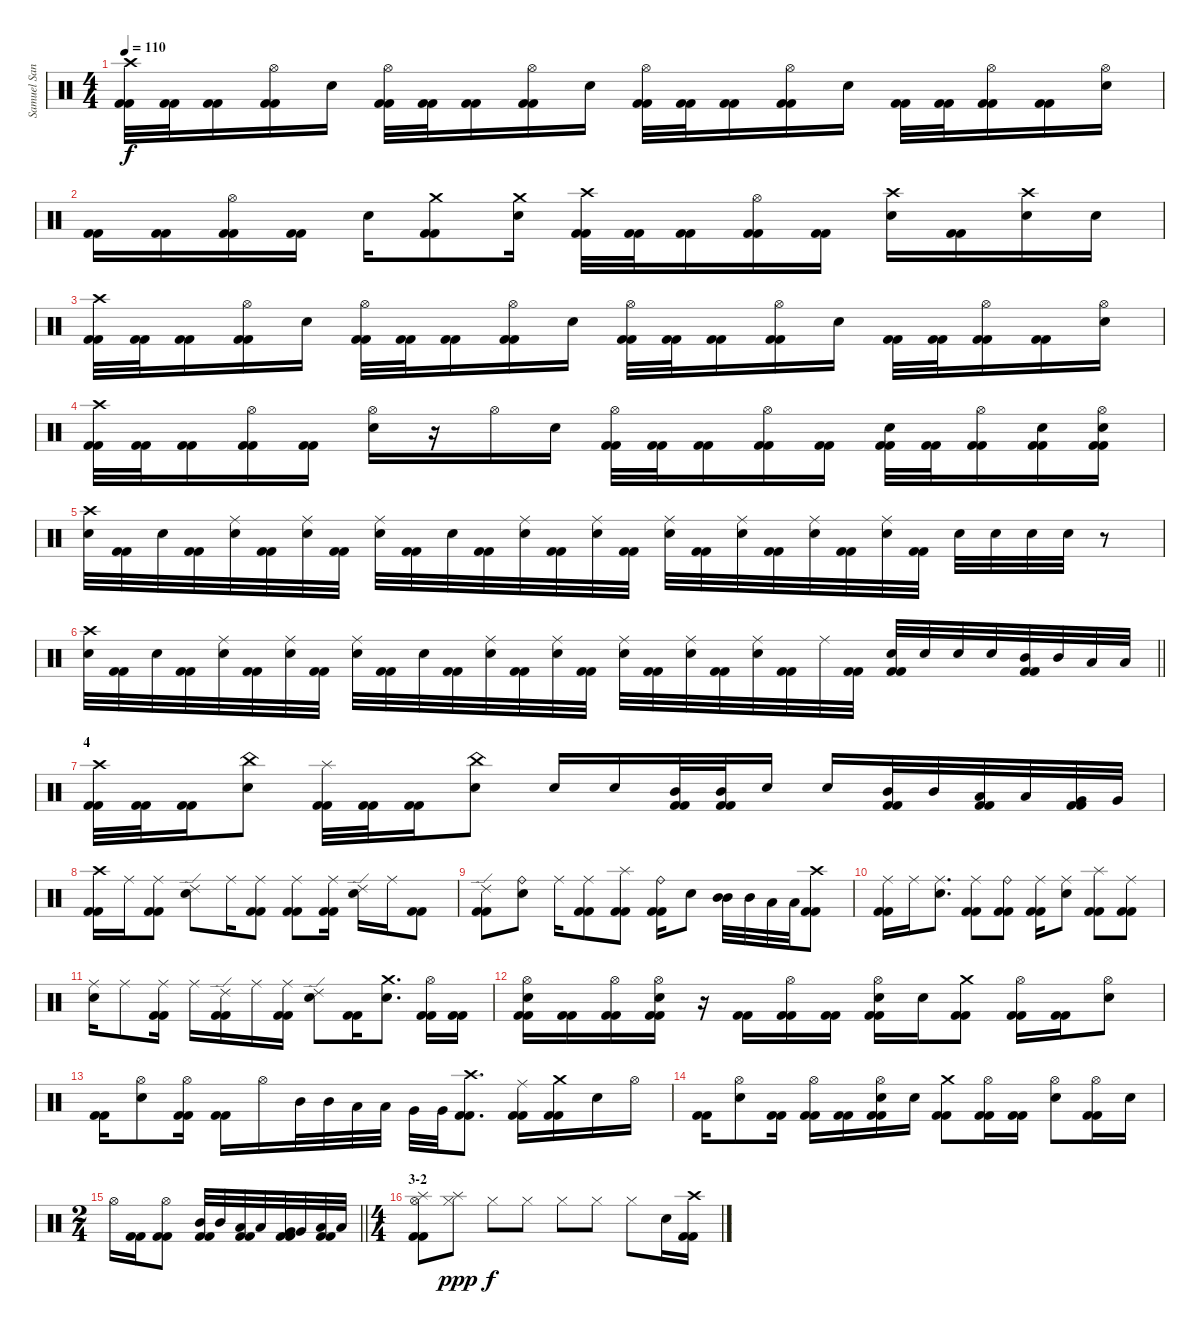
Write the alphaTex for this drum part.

\track ("Samuel Santiago" "Samuel San") {instrument percussion}
\staff {score}
\articulation defaults
\ts (4 4)
\tempo 110
\clef neutral
\ks c
("Crash high (hit)" "Kick (hit) 2" "Kick (hit) 2").32{dy f} ("Kick (hit) 2" "Kick (hit) 2").32 ("Kick (hit) 2" "Kick (hit) 2").16 ("Hi-Hat (open)" "Kick (hit) 2" "Kick (hit) 2").16 "Electric Snare (hit)".16 ("Hi-Hat (open)" "Kick (hit) 2" "Kick (hit) 2").32 ("Kick (hit) 2" "Kick (hit) 2").32 ("Kick (hit) 2" "Kick (hit) 2").16 ("Hi-Hat (open)" "Kick (hit) 2" "Kick (hit) 2").16 "Electric Snare (hit)".16 ("Hi-Hat (open)" "Kick (hit) 2" "Kick (hit) 2").32 ("Kick (hit) 2" "Kick (hit) 2").32 ("Kick (hit) 2" "Kick (hit) 2").16 ("Hi-Hat (open)" "Kick (hit) 2" "Kick (hit) 2").16 "Electric Snare (hit)".16 ("Kick (hit) 2" "Kick (hit) 2").32 ("Kick (hit) 2" "Kick (hit) 2").32 ("Hi-Hat (open)" "Kick (hit) 2" "Kick (hit) 2").16 ("Kick (hit) 2" "Kick (hit) 2").16 ("Hi-Hat (open)" "Electric Snare (hit)").16 |
("Kick (hit) 2" "Kick (hit) 2").16 ("Kick (hit) 2" "Kick (hit) 2").16 ("Hi-Hat (open)" "Kick (hit) 2" "Kick (hit) 2").16 ("Kick (hit) 2" "Kick (hit) 2").16 "Electric Snare (hit)".16 ("Crash medium (hit)" "Kick (hit) 2" "Kick (hit) 2").8 ("Crash medium (hit)" "Electric Snare (hit)").16 ("Crash high (hit)" "Kick (hit) 2" "Kick (hit) 2").32 ("Kick (hit) 2" "Kick (hit) 2").32 ("Kick (hit) 2" "Kick (hit) 2").16 ("Hi-Hat (open)" "Kick (hit) 2" "Kick (hit) 2").16 ("Kick (hit) 2" "Kick (hit) 2").16 ("Crash high (hit)" "Electric Snare (hit)").16 ("Kick (hit) 2" "Kick (hit) 2").16 ("Crash high (hit)" "Electric Snare (hit)").16 "Electric Snare (hit)".16 |
("Crash high (hit)" "Kick (hit) 2" "Kick (hit) 2").32 ("Kick (hit) 2" "Kick (hit) 2").32 ("Kick (hit) 2" "Kick (hit) 2").16 ("Hi-Hat (open)" "Kick (hit) 2" "Kick (hit) 2").16 "Electric Snare (hit)".16 ("Hi-Hat (open)" "Kick (hit) 2" "Kick (hit) 2").32 ("Kick (hit) 2" "Kick (hit) 2").32 ("Kick (hit) 2" "Kick (hit) 2").16 ("Hi-Hat (open)" "Kick (hit) 2" "Kick (hit) 2").16 "Electric Snare (hit)".16 ("Hi-Hat (open)" "Kick (hit) 2" "Kick (hit) 2").32 ("Kick (hit) 2" "Kick (hit) 2").32 ("Kick (hit) 2" "Kick (hit) 2").16 ("Hi-Hat (open)" "Kick (hit) 2" "Kick (hit) 2").16 "Electric Snare (hit)".16 ("Kick (hit) 2" "Kick (hit) 2").32 ("Kick (hit) 2" "Kick (hit) 2").32 ("Hi-Hat (open)" "Kick (hit) 2" "Kick (hit) 2").16 ("Kick (hit) 2" "Kick (hit) 2").16 ("Hi-Hat (open)" "Electric Snare (hit)").16 |
("Crash high (hit)" "Kick (hit) 2" "Kick (hit) 2").32 ("Kick (hit) 2" "Kick (hit) 2").32 ("Kick (hit) 2" "Kick (hit) 2").16 ("Hi-Hat (open)" "Kick (hit) 2" "Kick (hit) 2").16 ("Kick (hit) 2" "Kick (hit) 2").16 ("Hi-Hat (open)" "Electric Snare (hit)").16 r.16 "Hi-Hat (open)".16 "Electric Snare (hit)".16 ("Hi-Hat (open)" "Kick (hit) 2" "Kick (hit) 2").32 ("Kick (hit) 2" "Kick (hit) 2").32 ("Kick (hit) 2" "Kick (hit) 2").16 ("Hi-Hat (open)" "Kick (hit) 2" "Kick (hit) 2").16 ("Kick (hit) 2" "Kick (hit) 2").16 ("Electric Snare (hit)" "Kick (hit) 2" "Kick (hit) 2").32 ("Kick (hit) 2" "Kick (hit) 2").32 ("Hi-Hat (open)" "Kick (hit) 2" "Kick (hit) 2").16 ("Electric Snare (hit)" "Kick (hit) 2" "Kick (hit) 2").16 ("Hi-Hat (open)" "Electric Snare (hit)" "Kick (hit) 2" "Kick (hit) 2").16 |
("Crash high (hit)" "Electric Snare (hit)").32 ("Kick (hit) 2" "Kick (hit) 2").32 "Electric Snare (hit)".32 ("Kick (hit) 2" "Kick (hit) 2").32 ("Ride (middle)" "Electric Snare (hit)").32 ("Kick (hit) 2" "Kick (hit) 2").32 ("Ride (middle)" "Electric Snare (hit)").32 ("Kick (hit) 2" "Kick (hit) 2").32 ("Ride (middle)" "Electric Snare (hit)").32 ("Kick (hit) 2" "Kick (hit) 2").32 "Electric Snare (hit)".32 ("Kick (hit) 2" "Kick (hit) 2").32 ("Ride (middle)" "Electric Snare (hit)").32 ("Kick (hit) 2" "Kick (hit) 2").32 ("Ride (middle)" "Electric Snare (hit)").32 ("Kick (hit) 2" "Kick (hit) 2").32 ("Ride (middle)" "Electric Snare (hit)").32 ("Kick (hit) 2" "Kick (hit) 2").32 ("Ride (middle)" "Electric Snare (hit)").32 ("Kick (hit) 2" "Kick (hit) 2").32 ("Ride (middle)" "Electric Snare (hit)").32 ("Kick (hit) 2" "Kick (hit) 2").32 ("Ride (middle)" "Electric Snare (hit)").32 ("Kick (hit) 2" "Kick (hit) 2").32 "Electric Snare (hit)".32 "Electric Snare (hit)".32 "Electric Snare (hit)".32 "Electric Snare (hit)".32 r.8 |
\barLineRight lightlight
("Crash high (hit)" "Electric Snare (hit)").32 ("Kick (hit) 2" "Kick (hit) 2").32 "Electric Snare (hit)".32 ("Kick (hit) 2" "Kick (hit) 2").32 ("Ride (middle)" "Electric Snare (hit)").32 ("Kick (hit) 2" "Kick (hit) 2").32 ("Ride (middle)" "Electric Snare (hit)").32 ("Kick (hit) 2" "Kick (hit) 2").32 ("Ride (middle)" "Electric Snare (hit)").32 ("Kick (hit) 2" "Kick (hit) 2").32 "Electric Snare (hit)".32 ("Kick (hit) 2" "Kick (hit) 2").32 ("Ride (middle)" "Electric Snare (hit)").32 ("Kick (hit) 2" "Kick (hit) 2").32 ("Ride (middle)" "Electric Snare (hit)").32 ("Kick (hit) 2" "Kick (hit) 2").32 ("Ride (middle)" "Electric Snare (hit)").32 ("Kick (hit) 2" "Kick (hit) 2").32 ("Ride (middle)" "Electric Snare (hit)").32 ("Kick (hit) 2" "Kick (hit) 2").32 ("Ride (middle)" "Electric Snare (hit)").32 ("Kick (hit) 2" "Kick (hit) 2").32 "Ride (middle)".32 ("Kick (hit) 2" "Kick (hit) 2").32 ("Electric Snare (hit)" "Kick (hit) 2" "Kick (hit) 2").32 "Electric Snare (hit)".32 "Electric Snare (hit)".32 "Electric Snare (hit)".32 ("Mid Tom (hit)" "Kick (hit) 2" "Kick (hit) 2").32 "Mid Tom (hit)".32 "Low Tom (hit)".32 "Low Tom (hit)".32 |
\section ("" "4")
("Crash high (hit)" "Kick (hit) 2" "Kick (hit) 2").32 ("Kick (hit) 2" "Kick (hit) 2").32 ("Kick (hit) 2" "Kick (hit) 2").16 ("China (hit)" "Electric Snare (hit)").8 ("Splash (hit)" "Kick (hit) 2" "Kick (hit) 2").32 ("Kick (hit) 2" "Kick (hit) 2").32 ("Kick (hit) 2" "Kick (hit) 2").16 ("China (hit)" "Electric Snare (hit)").8 "Electric Snare (hit)".16 "Electric Snare (hit)".16 ("Mid Tom (hit)" "Kick (hit) 2" "Kick (hit) 2").32 ("Mid Tom (hit)" "Kick (hit) 2" "Kick (hit) 2").32 "Electric Snare (hit)".16 "Electric Snare (hit)".16 ("Mid Tom (hit)" "Kick (hit) 2" "Kick (hit) 2").32 "Mid Tom (hit)".32 ("Low Tom (hit)" "Kick (hit) 2" "Kick (hit) 2").32 "Low Tom (hit)".32 ("Very Low Tom (hit)" "Kick (hit) 2" "Kick (hit) 2").32 "Very Low Tom (hit)".32 |
("Crash high (hit)" "Kick (hit) 2" "Kick (hit) 2").16 "Ride (middle)".16 ("Ride (middle)" "Kick (hit) 2" "Kick (hit) 2").8 ("Ride (edge) 2" "Electric Snare (hit)").8 "Ride (middle)".16 ("Ride (middle)" "Kick (hit) 2" "Kick (hit) 2").8 ("Ride (middle)" "Kick (hit) 2" "Kick (hit) 2").8 ("Ride (middle)" "Kick (hit) 2" "Kick (hit) 2").16 ("Ride (edge) 2" "Electric Snare (hit)").16 "Ride (middle)".16 ("Kick (hit) 2" "Kick (hit) 2").8 |
("Ride (edge) 2" "Kick (hit) 2" "Kick (hit) 2").8 ("Ride (bell)" "Electric Snare (hit)").8 "Ride (middle)".16 ("Ride (middle)" "Kick (hit) 2" "Kick (hit) 2").8 ("Splash (hit)" "Kick (hit) 2" "Kick (hit) 2").8 ("Ride (bell)" "Kick (hit) 2" "Kick (hit) 2").16 "Electric Snare (hit)".8 ("Mid Tom (hit)" "Mid Tom (hit)").32 "Mid Tom (hit)".32 "Low Tom (hit)".32 "Low Tom (hit)".32 ("Crash high (hit)" "Kick (hit) 2" "Kick (hit) 2").8 |
("Ride (middle)" "Kick (hit) 2" "Kick (hit) 2").16 "Ride (middle)".16 ("Ride (middle)" "Electric Snare (hit)").8{d} ("Ride (middle)" "Kick (hit) 2" "Kick (hit) 2").8 ("Ride (bell)" "Kick (hit) 2" "Kick (hit) 2").8 ("Ride (middle)" "Kick (hit) 2" "Kick (hit) 2").16 ("Ride (middle)" "Electric Snare (hit)").8 ("Splash (hit)" "Kick (hit) 2" "Kick (hit) 2").8 ("Ride (middle)" "Kick (hit) 2" "Kick (hit) 2").8 |
("Ride (middle)" "Electric Snare (hit)").16 "Ride (middle)".8 ("Ride (middle)" "Kick (hit) 2" "Kick (hit) 2").16 "Ride (middle)".16 ("Ride (edge) 2" "Kick (hit) 2" "Kick (hit) 2").16 "Ride (middle)".16 ("Ride (middle)" "Kick (hit) 2" "Kick (hit) 2").16 ("Ride (edge) 2" "Electric Snare (hit)").8 ("Kick (hit) 2" "Kick (hit) 2").16 ("Crash medium (hit)" "Electric Snare (hit)").8{d} ("Hi-Hat (open)" "Kick (hit) 2" "Kick (hit) 2").16 ("Kick (hit) 2" "Kick (hit) 2").16 |
("Hi-Hat (open)" "Electric Snare (hit)" "Kick (hit) 2" "Kick (hit) 2").16 ("Kick (hit) 2" "Kick (hit) 2").16 ("Hi-Hat (open)" "Kick (hit) 2" "Kick (hit) 2").16 ("Hi-Hat (open)" "Electric Snare (hit)" "Kick (hit) 2" "Kick (hit) 2").16 r.16 ("Kick (hit) 2" "Kick (hit) 2").16 ("Hi-Hat (open)" "Kick (hit) 2" "Kick (hit) 2").16 ("Kick (hit) 2" "Kick (hit) 2").16 ("Hi-Hat (open)" "Electric Snare (hit)" "Kick (hit) 2" "Kick (hit) 2").16 "Electric Snare (hit)".16 ("Crash medium (hit)" "Kick (hit) 2" "Kick (hit) 2").8 ("Hi-Hat (open)" "Kick (hit) 2" "Kick (hit) 2").16 ("Kick (hit) 2" "Kick (hit) 2").16 ("Hi-Hat (open)" "Electric Snare (hit)").8 |
("Kick (hit) 2" "Kick (hit) 2").16 ("Hi-Hat (open)" "Electric Snare (hit)").8 ("Hi-Hat (open)" "Kick (hit) 2" "Kick (hit) 2").16 ("Kick (hit) 2" "Kick (hit) 2").16 "Hi-Hat (open)".16 "Mid Tom (hit)".32 "Mid Tom (hit)".32 "Low Tom (hit)".32 "Low Tom (hit)".32 "Very Low Tom (hit)".32 "Very Low Tom (hit)".32 ("Crash high (hit)" "Kick (hit) 2" "Kick (hit) 2").8{d} ("Ride (middle)" "Kick (hit) 2" "Kick (hit) 2").16 ("Crash medium (hit)" "Kick (hit) 2" "Kick (hit) 2").16 "Electric Snare (hit)".16 "Hi-Hat (open)".16 |
("Kick (hit) 2" "Kick (hit) 2").16 ("Hi-Hat (open)" "Electric Snare (hit)").8 ("Kick (hit) 2" "Kick (hit) 2").16 ("Hi-Hat (open)" "Kick (hit) 2" "Kick (hit) 2").16 ("Kick (hit) 2" "Kick (hit) 2").16 ("Hi-Hat (open)" "Electric Snare (hit)" "Kick (hit) 2" "Kick (hit) 2").16 "Electric Snare (hit)".16 ("Crash medium (hit)" "Kick (hit) 2" "Kick (hit) 2").8 ("Hi-Hat (open)" "Kick (hit) 2" "Kick (hit) 2").16 ("Kick (hit) 2" "Kick (hit) 2").16 ("Hi-Hat (open)" "Electric Snare (hit)").8 ("Hi-Hat (open)" "Kick (hit) 2" "Kick (hit) 2").16 "Electric Snare (hit)".16 |
\ts (2 4)
\barLineRight lightlight "Hi-Hat (open)".16
("Kick (hit) 2" "Kick (hit) 2").16 ("Hi-Hat (open)" "Kick (hit) 2" "Kick (hit) 2").8 ("Mid Tom (hit)" "Kick (hit) 2" "Kick (hit) 2").32 "Mid Tom (hit)".32 ("Low Tom (hit)" "Kick (hit) 2" "Kick (hit) 2").32 "Low Tom (hit)".32 ("Very Low Tom (hit)" "Kick (hit) 2" "Kick (hit) 2").32 "Very Low Tom (hit)".32 ("Low Floor Tom (hit)" "Kick (hit) 2" "Kick (hit) 2").32 "Low Floor Tom (hit)".32 |
\ts (4 4)
\section ("" "3-2")
("Splash (hit)" "Hi-Hat (open)" "Kick (hit) 2" "Kick (hit) 2").8 ("Splash (hit)" "Hi-Hat (closed)").8{dy ppp} "Hi-Hat (closed)".8{dy f} "Hi-Hat (closed)".8 "Hi-Hat (closed)".8 "Hi-Hat (closed)".8 "Hi-Hat (closed)".8 "Electric Snare (hit)".16 ("Crash high (hit)" "Kick (hit) 2" "Kick (hit) 2").16
